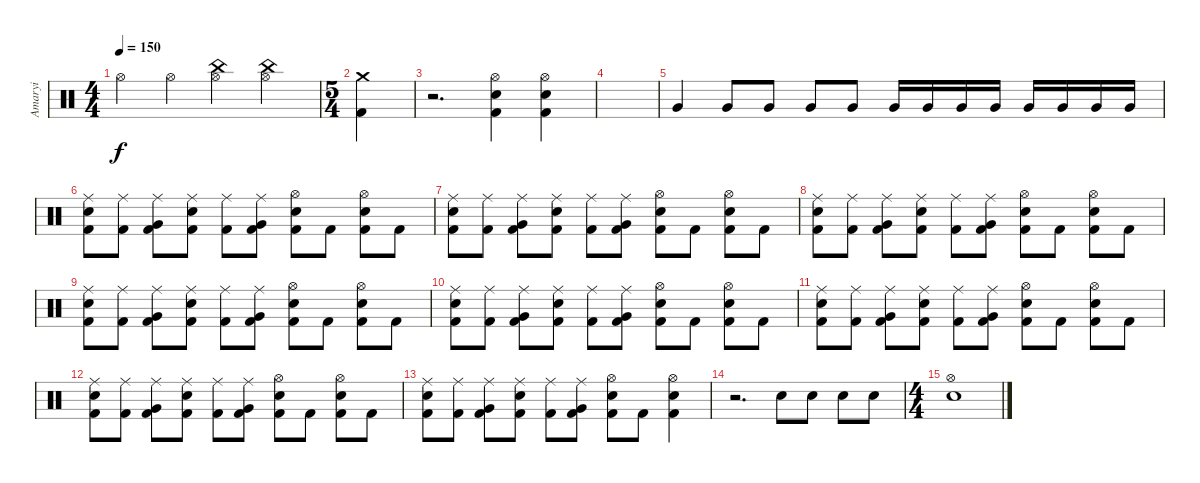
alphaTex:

\track ("Amaryi" "Amaryi") {instrument percussion}
\staff {score}
\articulation defaults
\ts (4 4)
\tempo 150
\clef neutral
\ks c "Hi-Hat (open)".4{dy f} "Hi-Hat (open)".4
("China (hit)" "Hi-Hat (open)").4 ("China (hit)" "Hi-Hat (open)").4 |
\ts (5 4)
("Crash medium (hit)" "Kick (hit) 2").4 |
r.2{d} ("Hi-Hat (open)" "Snare (hit) 2" "Kick (hit) 2").4 ("Hi-Hat (open)" "Snare (hit) 2" "Kick (hit) 2").4 |
|
"Very Low Tom (hit)".4 "Very Low Tom (hit)".8 "Very Low Tom (hit)".8 "Very Low Tom (hit)".8 "Very Low Tom (hit)".8 "Very Low Tom (hit)".16 "Very Low Tom (hit)".16 "Very Low Tom (hit)".16 "Very Low Tom (hit)".16 "Very Low Tom (hit)".16 "Very Low Tom (hit)".16 "Very Low Tom (hit)".16 "Very Low Tom (hit)".16 |
("Ride (middle)" "Snare (hit) 2" "Kick (hit) 2").8 ("Ride (middle)" "Kick (hit) 2").8 ("Ride (middle)" "Very Low Tom (hit)" "Kick (hit) 2").8 ("Ride (middle)" "Snare (hit) 2" "Kick (hit) 2").8 ("Ride (middle)" "Kick (hit) 2").8 ("Ride (middle)" "Very Low Tom (hit)" "Kick (hit) 2").8 ("Hi-Hat (open)" "Snare (hit) 2" "Kick (hit) 2").8 "Kick (hit) 2".8 ("Hi-Hat (open)" "Snare (hit) 2" "Kick (hit) 2").8 "Kick (hit) 2".8 |
("Ride (middle)" "Snare (hit) 2" "Kick (hit) 2").8 ("Ride (middle)" "Kick (hit) 2").8 ("Ride (middle)" "Very Low Tom (hit)" "Kick (hit) 2").8 ("Ride (middle)" "Snare (hit) 2" "Kick (hit) 2").8 ("Ride (middle)" "Kick (hit) 2").8 ("Ride (middle)" "Very Low Tom (hit)" "Kick (hit) 2").8 ("Hi-Hat (open)" "Snare (hit) 2" "Kick (hit) 2").8 "Kick (hit) 2".8 ("Hi-Hat (open)" "Snare (hit) 2" "Kick (hit) 2").8 "Kick (hit) 2".8 |
("Ride (middle)" "Snare (hit) 2" "Kick (hit) 2").8 ("Ride (middle)" "Kick (hit) 2").8 ("Ride (middle)" "Very Low Tom (hit)" "Kick (hit) 2").8 ("Ride (middle)" "Snare (hit) 2" "Kick (hit) 2").8 ("Ride (middle)" "Kick (hit) 2").8 ("Ride (middle)" "Very Low Tom (hit)" "Kick (hit) 2").8 ("Hi-Hat (open)" "Snare (hit) 2" "Kick (hit) 2").8 "Kick (hit) 2".8 ("Hi-Hat (open)" "Snare (hit) 2" "Kick (hit) 2").8 "Kick (hit) 2".8 |
("Ride (middle)" "Snare (hit) 2" "Kick (hit) 2").8 ("Ride (middle)" "Kick (hit) 2").8 ("Ride (middle)" "Very Low Tom (hit)" "Kick (hit) 2").8 ("Ride (middle)" "Snare (hit) 2" "Kick (hit) 2").8 ("Ride (middle)" "Kick (hit) 2").8 ("Ride (middle)" "Very Low Tom (hit)" "Kick (hit) 2").8 ("Hi-Hat (open)" "Snare (hit) 2" "Kick (hit) 2").8 "Kick (hit) 2".8 ("Hi-Hat (open)" "Snare (hit) 2" "Kick (hit) 2").8 "Kick (hit) 2".8 |
("Ride (middle)" "Snare (hit) 2" "Kick (hit) 2").8 ("Ride (middle)" "Kick (hit) 2").8 ("Ride (middle)" "Very Low Tom (hit)" "Kick (hit) 2").8 ("Ride (middle)" "Snare (hit) 2" "Kick (hit) 2").8 ("Ride (middle)" "Kick (hit) 2").8 ("Ride (middle)" "Very Low Tom (hit)" "Kick (hit) 2").8 ("Hi-Hat (open)" "Snare (hit) 2" "Kick (hit) 2").8 "Kick (hit) 2".8 ("Hi-Hat (open)" "Snare (hit) 2" "Kick (hit) 2").8 "Kick (hit) 2".8 |
("Ride (middle)" "Snare (hit) 2" "Kick (hit) 2").8 ("Ride (middle)" "Kick (hit) 2").8 ("Ride (middle)" "Very Low Tom (hit)" "Kick (hit) 2").8 ("Ride (middle)" "Snare (hit) 2" "Kick (hit) 2").8 ("Ride (middle)" "Kick (hit) 2").8 ("Ride (middle)" "Very Low Tom (hit)" "Kick (hit) 2").8 ("Hi-Hat (open)" "Snare (hit) 2" "Kick (hit) 2").8 "Kick (hit) 2".8 ("Hi-Hat (open)" "Snare (hit) 2" "Kick (hit) 2").8 "Kick (hit) 2".8 |
("Ride (middle)" "Snare (hit) 2" "Kick (hit) 2").8 ("Ride (middle)" "Kick (hit) 2").8 ("Ride (middle)" "Very Low Tom (hit)" "Kick (hit) 2").8 ("Ride (middle)" "Snare (hit) 2" "Kick (hit) 2").8 ("Ride (middle)" "Kick (hit) 2").8 ("Ride (middle)" "Very Low Tom (hit)" "Kick (hit) 2").8 ("Hi-Hat (open)" "Snare (hit) 2" "Kick (hit) 2").8 "Kick (hit) 2".8 ("Hi-Hat (open)" "Snare (hit) 2" "Kick (hit) 2").8 "Kick (hit) 2".8 |
("Ride (middle)" "Snare (hit) 2" "Kick (hit) 2").8 ("Ride (middle)" "Kick (hit) 2").8 ("Ride (middle)" "Very Low Tom (hit)" "Kick (hit) 2").8 ("Ride (middle)" "Snare (hit) 2" "Kick (hit) 2").8 ("Ride (middle)" "Kick (hit) 2").8 ("Ride (middle)" "Very Low Tom (hit)" "Kick (hit) 2").8 ("Hi-Hat (open)" "Snare (hit) 2" "Kick (hit) 2").8 "Kick (hit) 2".8 ("Hi-Hat (open)" "Snare (hit) 2" "Kick (hit) 2").4 |
r.2{d} "Snare (hit) 2".8 "Snare (hit) 2".8 "Snare (hit) 2".8 "Snare (hit) 2".8 |
\ts (4 4)
("Hi-Hat (open)" "Snare (hit) 2").1
